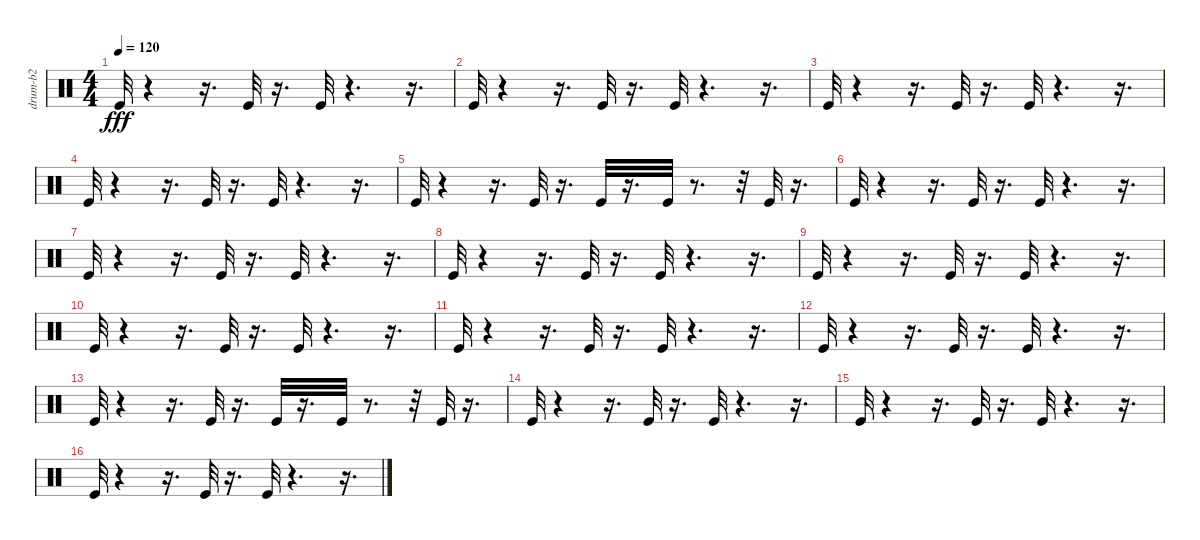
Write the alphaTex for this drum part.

\track ("drum-b2" "drum-b2") {instrument percussion}
\staff {score}
\articulation defaults
\ts (4 4)
\tempo 120
\clef neutral
\ks c "Kick (hit)".32{dy fff}
r.4 r.16{d} "Kick (hit)".32 r.16{d} "Kick (hit)".32 r.4{d} r.16{d} |
"Kick (hit)".32 r.4 r.16{d} "Kick (hit)".32 r.16{d} "Kick (hit)".32 r.4{d} r.16{d} |
"Kick (hit)".32 r.4 r.16{d} "Kick (hit)".32 r.16{d} "Kick (hit)".32 r.4{d} r.16{d} |
"Kick (hit)".32 r.4 r.16{d} "Kick (hit)".32 r.16{d} "Kick (hit)".32 r.4{d} r.16{d} |
"Kick (hit)".32 r.4 r.16{d} "Kick (hit)".32 r.16{d} "Kick (hit)".32 r.16{d} "Kick (hit)".32 r.8{d} r.32 "Kick (hit)".32 r.16{d} |
"Kick (hit)".32 r.4 r.16{d} "Kick (hit)".32 r.16{d} "Kick (hit)".32 r.4{d} r.16{d} |
"Kick (hit)".32 r.4 r.16{d} "Kick (hit)".32 r.16{d} "Kick (hit)".32 r.4{d} r.16{d} |
"Kick (hit)".32 r.4 r.16{d} "Kick (hit)".32 r.16{d} "Kick (hit)".32 r.4{d} r.16{d} |
"Kick (hit)".32 r.4 r.16{d} "Kick (hit)".32 r.16{d} "Kick (hit)".32 r.4{d} r.16{d} |
"Kick (hit)".32 r.4 r.16{d} "Kick (hit)".32 r.16{d} "Kick (hit)".32 r.4{d} r.16{d} |
"Kick (hit)".32 r.4 r.16{d} "Kick (hit)".32 r.16{d} "Kick (hit)".32 r.4{d} r.16{d} |
"Kick (hit)".32 r.4 r.16{d} "Kick (hit)".32 r.16{d} "Kick (hit)".32 r.4{d} r.16{d} |
"Kick (hit)".32 r.4 r.16{d} "Kick (hit)".32 r.16{d} "Kick (hit)".32 r.16{d} "Kick (hit)".32 r.8{d} r.32 "Kick (hit)".32 r.16{d} |
"Kick (hit)".32 r.4 r.16{d} "Kick (hit)".32 r.16{d} "Kick (hit)".32 r.4{d} r.16{d} |
"Kick (hit)".32 r.4 r.16{d} "Kick (hit)".32 r.16{d} "Kick (hit)".32 r.4{d} r.16{d} |
"Kick (hit)".32 r.4 r.16{d} "Kick (hit)".32 r.16{d} "Kick (hit)".32 r.4{d} r.16{d}
